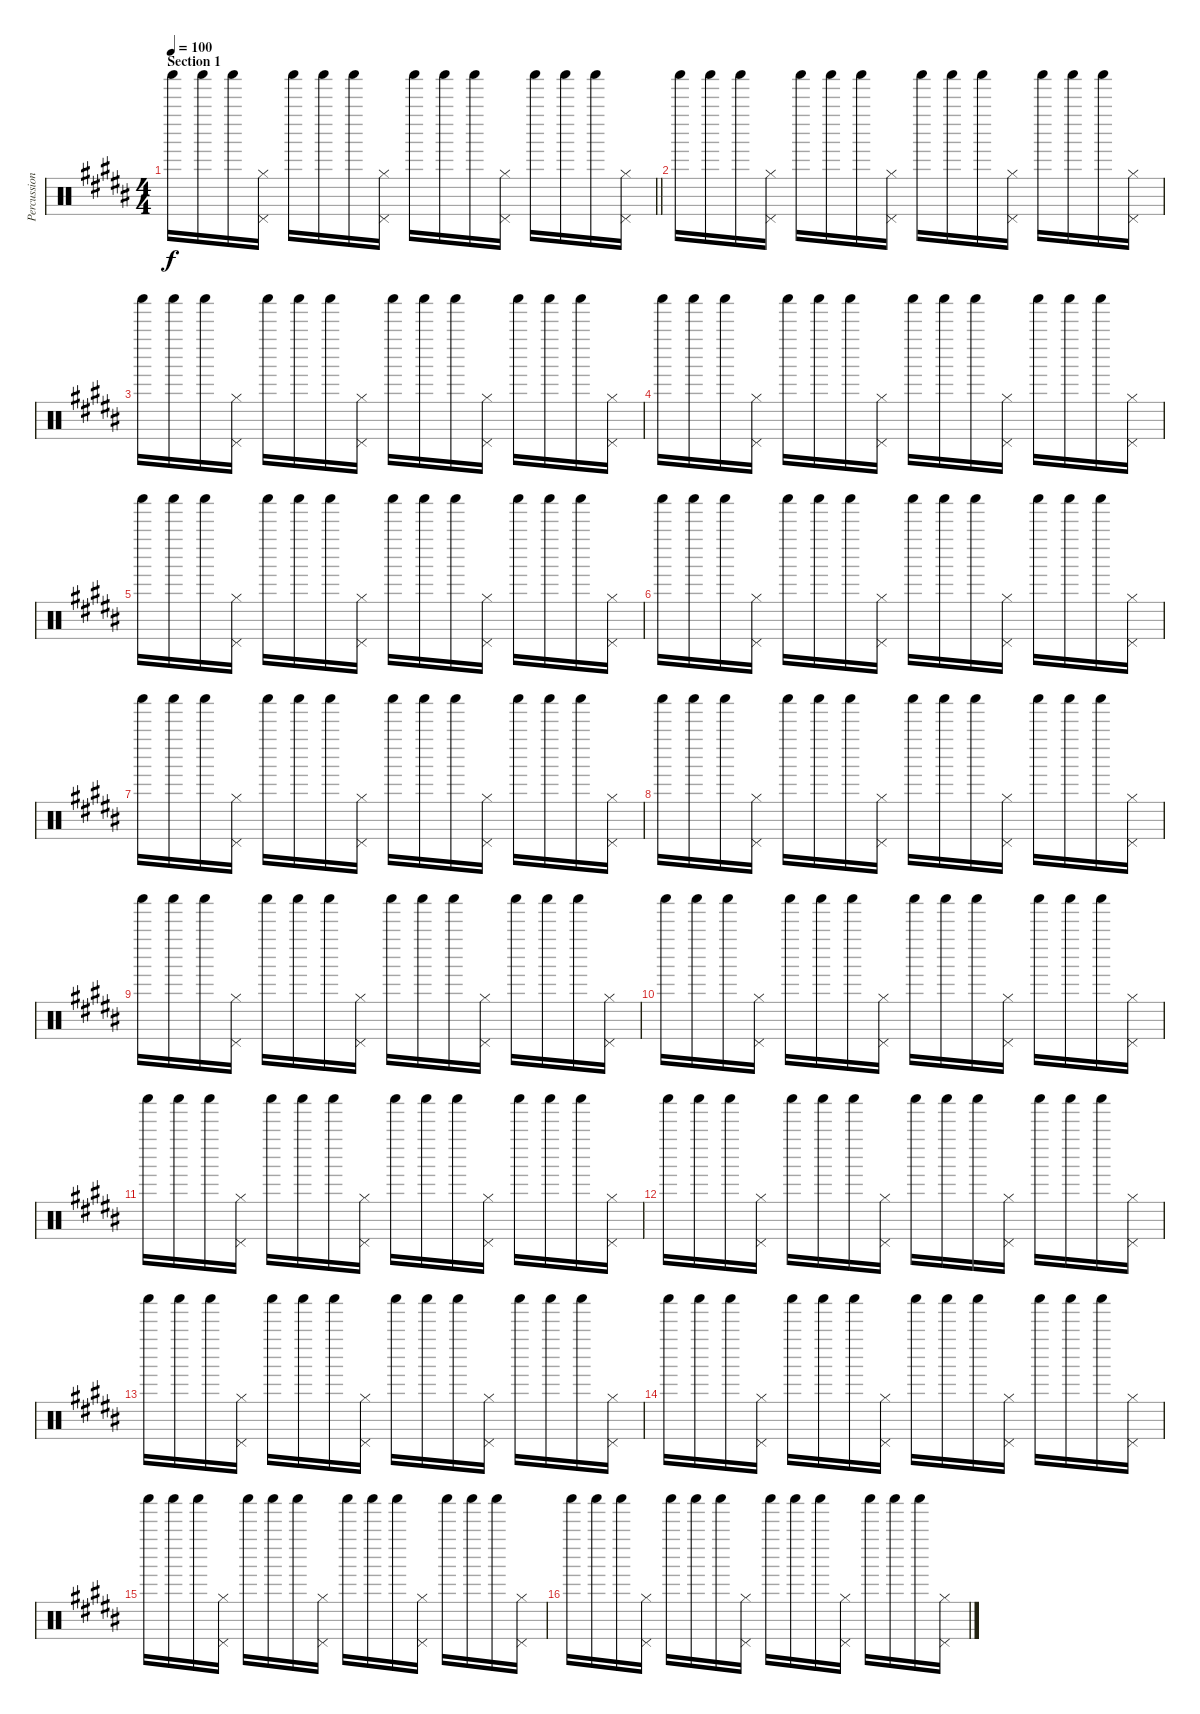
\track ("Percussions" "Percussion") {instrument percussion}
\staff {score}
\articulation defaults
\ts (4 4)
\section ("" "Section 1")
\tempo 100
\clef neutral
\barLineRight lightlight
\ks b "Shaker (hit)".16{dy f} "Shaker (hit)".16 "Shaker (hit)".16
("Hi-Hat (closed)" "Pedal Hi-Hat (hit)").16 "Shaker (hit)".16 "Shaker (hit)".16 "Shaker (hit)".16 ("Hi-Hat (closed)" "Pedal Hi-Hat (hit)").16 "Shaker (hit)".16 "Shaker (hit)".16 "Shaker (hit)".16 ("Hi-Hat (closed)" "Pedal Hi-Hat (hit)").16 "Shaker (hit)".16 "Shaker (hit)".16 "Shaker (hit)".16 ("Hi-Hat (closed)" "Pedal Hi-Hat (hit)").16 |
"Shaker (hit)".16 "Shaker (hit)".16 "Shaker (hit)".16 ("Hi-Hat (closed)" "Pedal Hi-Hat (hit)").16 "Shaker (hit)".16 "Shaker (hit)".16 "Shaker (hit)".16 ("Hi-Hat (closed)" "Pedal Hi-Hat (hit)").16 "Shaker (hit)".16 "Shaker (hit)".16 "Shaker (hit)".16 ("Hi-Hat (closed)" "Pedal Hi-Hat (hit)").16 "Shaker (hit)".16 "Shaker (hit)".16 "Shaker (hit)".16 ("Hi-Hat (closed)" "Pedal Hi-Hat (hit)").16 |
"Shaker (hit)".16 "Shaker (hit)".16 "Shaker (hit)".16 ("Hi-Hat (closed)" "Pedal Hi-Hat (hit)").16 "Shaker (hit)".16 "Shaker (hit)".16 "Shaker (hit)".16 ("Hi-Hat (closed)" "Pedal Hi-Hat (hit)").16 "Shaker (hit)".16 "Shaker (hit)".16 "Shaker (hit)".16 ("Hi-Hat (closed)" "Pedal Hi-Hat (hit)").16 "Shaker (hit)".16 "Shaker (hit)".16 "Shaker (hit)".16 ("Hi-Hat (closed)" "Pedal Hi-Hat (hit)").16 |
"Shaker (hit)".16 "Shaker (hit)".16 "Shaker (hit)".16 ("Hi-Hat (closed)" "Pedal Hi-Hat (hit)").16 "Shaker (hit)".16 "Shaker (hit)".16 "Shaker (hit)".16 ("Hi-Hat (closed)" "Pedal Hi-Hat (hit)").16 "Shaker (hit)".16 "Shaker (hit)".16 "Shaker (hit)".16 ("Hi-Hat (closed)" "Pedal Hi-Hat (hit)").16 "Shaker (hit)".16 "Shaker (hit)".16 "Shaker (hit)".16 ("Hi-Hat (closed)" "Pedal Hi-Hat (hit)").16 |
"Shaker (hit)".16 "Shaker (hit)".16 "Shaker (hit)".16 ("Hi-Hat (closed)" "Pedal Hi-Hat (hit)").16 "Shaker (hit)".16 "Shaker (hit)".16 "Shaker (hit)".16 ("Hi-Hat (closed)" "Pedal Hi-Hat (hit)").16 "Shaker (hit)".16 "Shaker (hit)".16 "Shaker (hit)".16 ("Hi-Hat (closed)" "Pedal Hi-Hat (hit)").16 "Shaker (hit)".16 "Shaker (hit)".16 "Shaker (hit)".16 ("Hi-Hat (closed)" "Pedal Hi-Hat (hit)").16 |
"Shaker (hit)".16 "Shaker (hit)".16 "Shaker (hit)".16 ("Hi-Hat (closed)" "Pedal Hi-Hat (hit)").16 "Shaker (hit)".16 "Shaker (hit)".16 "Shaker (hit)".16 ("Hi-Hat (closed)" "Pedal Hi-Hat (hit)").16 "Shaker (hit)".16 "Shaker (hit)".16 "Shaker (hit)".16 ("Hi-Hat (closed)" "Pedal Hi-Hat (hit)").16 "Shaker (hit)".16 "Shaker (hit)".16 "Shaker (hit)".16 ("Hi-Hat (closed)" "Pedal Hi-Hat (hit)").16 |
"Shaker (hit)".16 "Shaker (hit)".16 "Shaker (hit)".16 ("Hi-Hat (closed)" "Pedal Hi-Hat (hit)").16 "Shaker (hit)".16 "Shaker (hit)".16 "Shaker (hit)".16 ("Hi-Hat (closed)" "Pedal Hi-Hat (hit)").16 "Shaker (hit)".16 "Shaker (hit)".16 "Shaker (hit)".16 ("Hi-Hat (closed)" "Pedal Hi-Hat (hit)").16 "Shaker (hit)".16 "Shaker (hit)".16 "Shaker (hit)".16 ("Hi-Hat (closed)" "Pedal Hi-Hat (hit)").16 |
"Shaker (hit)".16 "Shaker (hit)".16 "Shaker (hit)".16 ("Hi-Hat (closed)" "Pedal Hi-Hat (hit)").16 "Shaker (hit)".16 "Shaker (hit)".16 "Shaker (hit)".16 ("Hi-Hat (closed)" "Pedal Hi-Hat (hit)").16 "Shaker (hit)".16 "Shaker (hit)".16 "Shaker (hit)".16 ("Hi-Hat (closed)" "Pedal Hi-Hat (hit)").16 "Shaker (hit)".16 "Shaker (hit)".16 "Shaker (hit)".16 ("Hi-Hat (closed)" "Pedal Hi-Hat (hit)").16 |
"Shaker (hit)".16 "Shaker (hit)".16 "Shaker (hit)".16 ("Hi-Hat (closed)" "Pedal Hi-Hat (hit)").16 "Shaker (hit)".16 "Shaker (hit)".16 "Shaker (hit)".16 ("Hi-Hat (closed)" "Pedal Hi-Hat (hit)").16 "Shaker (hit)".16 "Shaker (hit)".16 "Shaker (hit)".16 ("Hi-Hat (closed)" "Pedal Hi-Hat (hit)").16 "Shaker (hit)".16 "Shaker (hit)".16 "Shaker (hit)".16 ("Hi-Hat (closed)" "Pedal Hi-Hat (hit)").16 |
"Shaker (hit)".16 "Shaker (hit)".16 "Shaker (hit)".16 ("Hi-Hat (closed)" "Pedal Hi-Hat (hit)").16 "Shaker (hit)".16 "Shaker (hit)".16 "Shaker (hit)".16 ("Hi-Hat (closed)" "Pedal Hi-Hat (hit)").16 "Shaker (hit)".16 "Shaker (hit)".16 "Shaker (hit)".16 ("Hi-Hat (closed)" "Pedal Hi-Hat (hit)").16 "Shaker (hit)".16 "Shaker (hit)".16 "Shaker (hit)".16 ("Hi-Hat (closed)" "Pedal Hi-Hat (hit)").16 |
"Shaker (hit)".16 "Shaker (hit)".16 "Shaker (hit)".16 ("Hi-Hat (closed)" "Pedal Hi-Hat (hit)").16 "Shaker (hit)".16 "Shaker (hit)".16 "Shaker (hit)".16 ("Hi-Hat (closed)" "Pedal Hi-Hat (hit)").16 "Shaker (hit)".16 "Shaker (hit)".16 "Shaker (hit)".16 ("Hi-Hat (closed)" "Pedal Hi-Hat (hit)").16 "Shaker (hit)".16 "Shaker (hit)".16 "Shaker (hit)".16 ("Hi-Hat (closed)" "Pedal Hi-Hat (hit)").16 |
"Shaker (hit)".16 "Shaker (hit)".16 "Shaker (hit)".16 ("Hi-Hat (closed)" "Pedal Hi-Hat (hit)").16 "Shaker (hit)".16 "Shaker (hit)".16 "Shaker (hit)".16 ("Hi-Hat (closed)" "Pedal Hi-Hat (hit)").16 "Shaker (hit)".16 "Shaker (hit)".16 "Shaker (hit)".16 ("Hi-Hat (closed)" "Pedal Hi-Hat (hit)").16 "Shaker (hit)".16 "Shaker (hit)".16 "Shaker (hit)".16 ("Hi-Hat (closed)" "Pedal Hi-Hat (hit)").16 |
"Shaker (hit)".16 "Shaker (hit)".16 "Shaker (hit)".16 ("Hi-Hat (closed)" "Pedal Hi-Hat (hit)").16 "Shaker (hit)".16 "Shaker (hit)".16 "Shaker (hit)".16 ("Hi-Hat (closed)" "Pedal Hi-Hat (hit)").16 "Shaker (hit)".16 "Shaker (hit)".16 "Shaker (hit)".16 ("Hi-Hat (closed)" "Pedal Hi-Hat (hit)").16 "Shaker (hit)".16 "Shaker (hit)".16 "Shaker (hit)".16 ("Hi-Hat (closed)" "Pedal Hi-Hat (hit)").16 |
"Shaker (hit)".16 "Shaker (hit)".16 "Shaker (hit)".16 ("Hi-Hat (closed)" "Pedal Hi-Hat (hit)").16 "Shaker (hit)".16 "Shaker (hit)".16 "Shaker (hit)".16 ("Hi-Hat (closed)" "Pedal Hi-Hat (hit)").16 "Shaker (hit)".16 "Shaker (hit)".16 "Shaker (hit)".16 ("Hi-Hat (closed)" "Pedal Hi-Hat (hit)").16 "Shaker (hit)".16 "Shaker (hit)".16 "Shaker (hit)".16 ("Hi-Hat (closed)" "Pedal Hi-Hat (hit)").16 |
"Shaker (hit)".16 "Shaker (hit)".16 "Shaker (hit)".16 ("Hi-Hat (closed)" "Pedal Hi-Hat (hit)").16 "Shaker (hit)".16 "Shaker (hit)".16 "Shaker (hit)".16 ("Hi-Hat (closed)" "Pedal Hi-Hat (hit)").16 "Shaker (hit)".16 "Shaker (hit)".16 "Shaker (hit)".16 ("Hi-Hat (closed)" "Pedal Hi-Hat (hit)").16 "Shaker (hit)".16 "Shaker (hit)".16 "Shaker (hit)".16 ("Hi-Hat (closed)" "Pedal Hi-Hat (hit)").16 |
"Shaker (hit)".16 "Shaker (hit)".16 "Shaker (hit)".16 ("Hi-Hat (closed)" "Pedal Hi-Hat (hit)").16 "Shaker (hit)".16 "Shaker (hit)".16 "Shaker (hit)".16 ("Hi-Hat (closed)" "Pedal Hi-Hat (hit)").16 "Shaker (hit)".16 "Shaker (hit)".16 "Shaker (hit)".16 ("Hi-Hat (closed)" "Pedal Hi-Hat (hit)").16 "Shaker (hit)".16 "Shaker (hit)".16 "Shaker (hit)".16 ("Hi-Hat (closed)" "Pedal Hi-Hat (hit)").16
